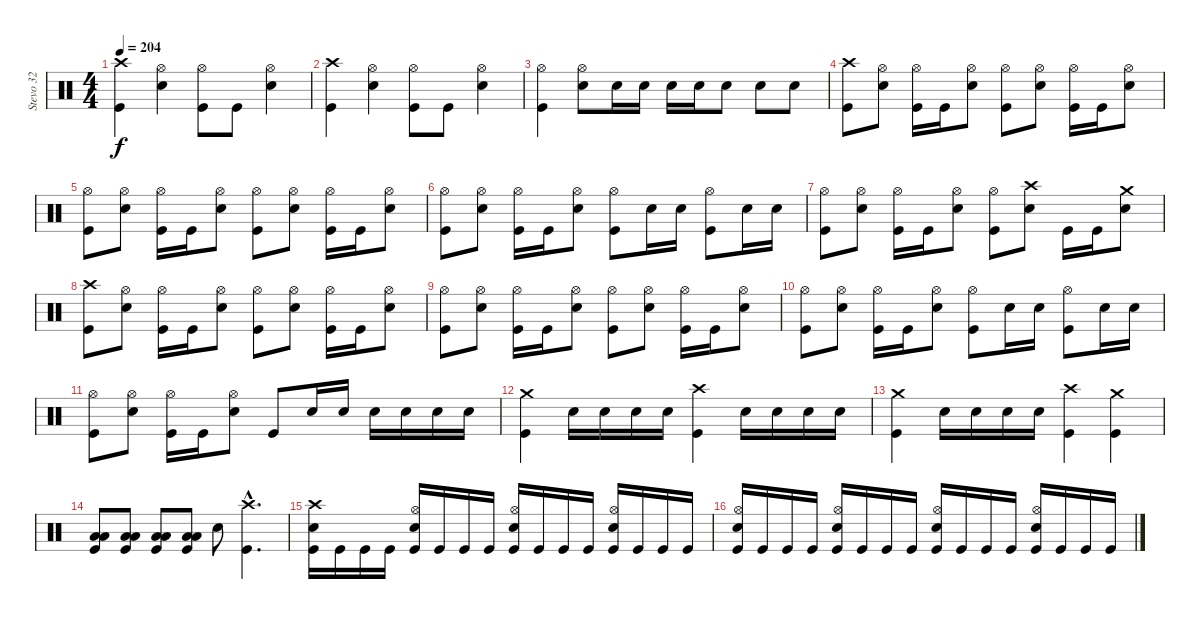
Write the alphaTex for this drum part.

\track ("Stevo 32" "Stevo 32") {instrument percussion}
\staff {score}
\articulation defaults
\ts (4 4)
\tempo 204
\clef neutral
\ks c
("Crash high (hit)" "Kick (hit)").4{dy f} ("Hi-Hat (open)" "Electric Snare (hit)").4 ("Hi-Hat (open)" "Kick (hit)").8 "Kick (hit)".8 ("Hi-Hat (open)" "Electric Snare (hit)").4 |
("Crash high (hit)" "Kick (hit)").4 ("Hi-Hat (open)" "Electric Snare (hit)").4 ("Hi-Hat (open)" "Kick (hit)").8 "Kick (hit)".8 ("Hi-Hat (open)" "Electric Snare (hit)").4 |
("Hi-Hat (open)" "Kick (hit)").4 ("Hi-Hat (open)" "Electric Snare (hit)").8 "Electric Snare (hit)".16 "Electric Snare (hit)".16 "Electric Snare (hit)".16 "Electric Snare (hit)".16 "Electric Snare (hit)".8 "Electric Snare (hit)".8 "Electric Snare (hit)".8 |
("Crash high (hit)" "Kick (hit)").8 ("Hi-Hat (open)" "Electric Snare (hit)").8 ("Hi-Hat (open)" "Kick (hit)").16 "Kick (hit)".16 ("Hi-Hat (open)" "Electric Snare (hit)").8 ("Hi-Hat (open)" "Kick (hit)").8 ("Hi-Hat (open)" "Electric Snare (hit)").8 ("Hi-Hat (open)" "Kick (hit)").16 "Kick (hit)".16 ("Hi-Hat (open)" "Electric Snare (hit)").8 |
("Hi-Hat (open)" "Kick (hit)").8 ("Hi-Hat (open)" "Electric Snare (hit)").8 ("Hi-Hat (open)" "Kick (hit)").16 "Kick (hit)".16 ("Hi-Hat (open)" "Electric Snare (hit)").8 ("Hi-Hat (open)" "Kick (hit)").8 ("Hi-Hat (open)" "Electric Snare (hit)").8 ("Hi-Hat (open)" "Kick (hit)").16 "Kick (hit)".16 ("Hi-Hat (open)" "Electric Snare (hit)").8 |
("Hi-Hat (open)" "Kick (hit)").8 ("Hi-Hat (open)" "Electric Snare (hit)").8 ("Hi-Hat (open)" "Kick (hit)").16 "Kick (hit)".16 ("Hi-Hat (open)" "Electric Snare (hit)").8 ("Hi-Hat (open)" "Kick (hit)").8 "Electric Snare (hit)".16 "Electric Snare (hit)".16 ("Hi-Hat (open)" "Kick (hit)").8 "Electric Snare (hit)".16 "Electric Snare (hit)".16 |
("Hi-Hat (open)" "Kick (hit)").8 ("Hi-Hat (open)" "Electric Snare (hit)").8 ("Hi-Hat (open)" "Kick (hit)").16 "Kick (hit)".16 ("Hi-Hat (open)" "Electric Snare (hit)").8 ("Hi-Hat (open)" "Kick (hit)").8 ("Crash high (hit)" "Electric Snare (hit)").8 "Kick (hit)".16 "Kick (hit)".16 ("Crash medium (hit)" "Electric Snare (hit)").8 |
("Crash high (hit)" "Kick (hit)").8 ("Hi-Hat (open)" "Electric Snare (hit)").8 ("Hi-Hat (open)" "Kick (hit)").16 "Kick (hit)".16 ("Hi-Hat (open)" "Electric Snare (hit)").8 ("Hi-Hat (open)" "Kick (hit)").8 ("Hi-Hat (open)" "Electric Snare (hit)").8 ("Hi-Hat (open)" "Kick (hit)").16 "Kick (hit)".16 ("Hi-Hat (open)" "Electric Snare (hit)").8 |
("Hi-Hat (open)" "Kick (hit)").8 ("Hi-Hat (open)" "Electric Snare (hit)").8 ("Hi-Hat (open)" "Kick (hit)").16 "Kick (hit)".16 ("Hi-Hat (open)" "Electric Snare (hit)").8 ("Hi-Hat (open)" "Kick (hit)").8 ("Hi-Hat (open)" "Electric Snare (hit)").8 ("Hi-Hat (open)" "Kick (hit)").16 "Kick (hit)".16 ("Hi-Hat (open)" "Electric Snare (hit)").8 |
("Hi-Hat (open)" "Kick (hit)").8 ("Hi-Hat (open)" "Electric Snare (hit)").8 ("Hi-Hat (open)" "Kick (hit)").16 "Kick (hit)".16 ("Hi-Hat (open)" "Electric Snare (hit)").8 ("Hi-Hat (open)" "Kick (hit)").8 "Electric Snare (hit)".16 "Electric Snare (hit)".16 ("Hi-Hat (open)" "Kick (hit)").8 "Electric Snare (hit)".16 "Electric Snare (hit)".16 |
("Hi-Hat (open)" "Kick (hit)").8 ("Hi-Hat (open)" "Electric Snare (hit)").8 ("Hi-Hat (open)" "Kick (hit)").16 "Kick (hit)".16 ("Hi-Hat (open)" "Electric Snare (hit)").8 "Kick (hit)".8 "Electric Snare (hit)".16 "Electric Snare (hit)".16 "Electric Snare (hit)".16 "Electric Snare (hit)".16 "Electric Snare (hit)".16 "Electric Snare (hit)".16 |
("Crash medium (hit)" "Kick (hit)").4 "Electric Snare (hit)".16 "Electric Snare (hit)".16 "Electric Snare (hit)".16 "Electric Snare (hit)".16 ("Crash high (hit)" "Kick (hit)").4 "Electric Snare (hit)".16 "Electric Snare (hit)".16 "Electric Snare (hit)".16 "Electric Snare (hit)".16 |
("Crash medium (hit)" "Kick (hit)").4 "Electric Snare (hit)".16 "Electric Snare (hit)".16 "Electric Snare (hit)".16 "Electric Snare (hit)".16 ("Crash high (hit)" "Kick (hit)").4 ("Crash medium (hit)" "Kick (hit)").4 |
("Low Tom (hit)" "Low Floor Tom (hit)" "Kick (hit)").8 ("Low Tom (hit)" "Low Floor Tom (hit)" "Kick (hit)").8 ("Low Tom (hit)" "Low Floor Tom (hit)" "Kick (hit)").8 ("Low Tom (hit)" "Low Floor Tom (hit)" "Kick (hit)").8 "Electric Snare (hit)".8 ("Crash high (hit)"{hac} "Kick (hit)"{hac}).4{d} |
("Crash high (hit)" "Electric Snare (hit)" "Kick (hit)").16 "Kick (hit)".16 "Kick (hit)".16 "Kick (hit)".16 ("Hi-Hat (open)" "Electric Snare (hit)" "Kick (hit)").16 "Kick (hit)".16 "Kick (hit)".16 "Kick (hit)".16 ("Hi-Hat (open)" "Electric Snare (hit)" "Kick (hit)").16 "Kick (hit)".16 "Kick (hit)".16 "Kick (hit)".16 ("Hi-Hat (open)" "Electric Snare (hit)" "Kick (hit)").16 "Kick (hit)".16 "Kick (hit)".16 "Kick (hit)".16 |
("Hi-Hat (open)" "Electric Snare (hit)" "Kick (hit)").16 "Kick (hit)".16 "Kick (hit)".16 "Kick (hit)".16 ("Hi-Hat (open)" "Electric Snare (hit)" "Kick (hit)").16 "Kick (hit)".16 "Kick (hit)".16 "Kick (hit)".16 ("Hi-Hat (open)" "Electric Snare (hit)" "Kick (hit)").16 "Kick (hit)".16 "Kick (hit)".16 "Kick (hit)".16 ("Hi-Hat (open)" "Electric Snare (hit)" "Kick (hit)").16 "Kick (hit)".16 "Kick (hit)".16 "Kick (hit)".16
